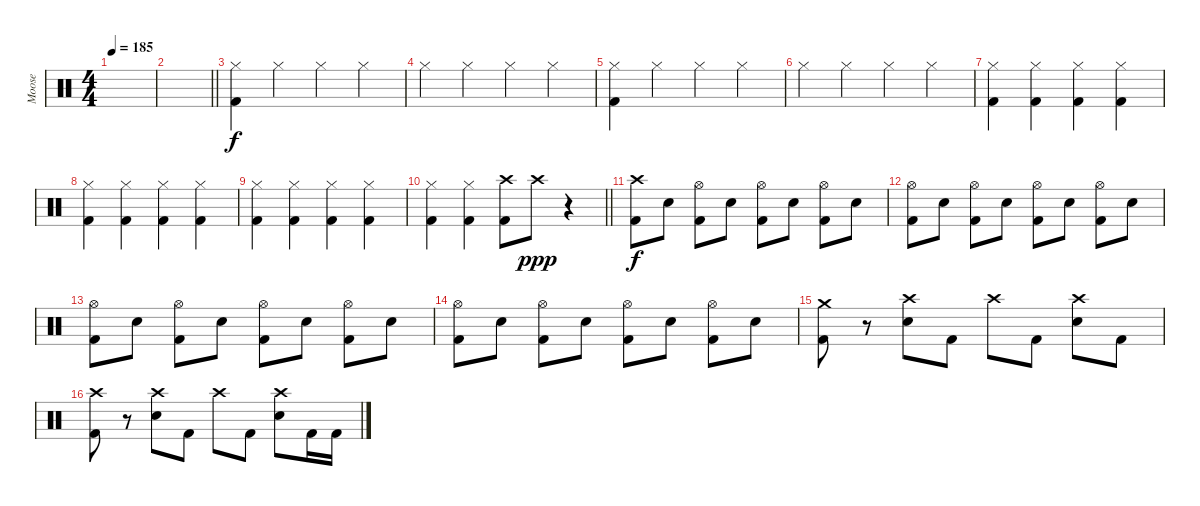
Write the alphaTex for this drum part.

\track ("Moose" "Moose") {instrument percussion}
\staff {score}
\articulation defaults
\ts (4 4)
\tempo 185
\clef neutral
\ks c
|
\barLineRight lightlight
|
("Hi-Hat (closed)" "Kick (hit) 2").4{dy f} "Hi-Hat (closed)".4 "Hi-Hat (closed)".4 "Hi-Hat (closed)".4 |
"Hi-Hat (closed)".4 "Hi-Hat (closed)".4 "Hi-Hat (closed)".4 "Hi-Hat (closed)".4 |
("Hi-Hat (closed)" "Kick (hit) 2").4 "Hi-Hat (closed)".4 "Hi-Hat (closed)".4 "Hi-Hat (closed)".4 |
"Hi-Hat (closed)".4 "Hi-Hat (closed)".4 "Hi-Hat (closed)".4 "Hi-Hat (closed)".4 |
("Hi-Hat (closed)" "Kick (hit) 2").4 ("Hi-Hat (closed)" "Kick (hit) 2").4 ("Hi-Hat (closed)" "Kick (hit) 2").4 ("Hi-Hat (closed)" "Kick (hit) 2").4 |
("Hi-Hat (closed)" "Kick (hit) 2").4 ("Hi-Hat (closed)" "Kick (hit) 2").4 ("Hi-Hat (closed)" "Kick (hit) 2").4 ("Hi-Hat (closed)" "Kick (hit) 2").4 |
("Hi-Hat (closed)" "Kick (hit) 2").4 ("Hi-Hat (closed)" "Kick (hit) 2").4 ("Hi-Hat (closed)" "Kick (hit) 2").4 ("Hi-Hat (closed)" "Kick (hit) 2").4 |
\barLineRight lightlight
("Hi-Hat (closed)" "Kick (hit) 2").4 ("Hi-Hat (closed)" "Kick (hit) 2").4 ("Crash high (hit)" "Kick (hit) 2").8 "Crash high (hit)".8{dy ppp} r.4 |
("Crash high (hit)" "Kick (hit) 2").8{dy f} "Electric Snare (hit)".8 ("Hi-Hat (open)" "Kick (hit) 2").8 "Electric Snare (hit)".8 ("Hi-Hat (open)" "Kick (hit) 2").8 "Electric Snare (hit)".8 ("Hi-Hat (open)" "Kick (hit) 2").8 "Electric Snare (hit)".8 |
("Hi-Hat (open)" "Kick (hit) 2").8 "Electric Snare (hit)".8 ("Hi-Hat (open)" "Kick (hit) 2").8 "Electric Snare (hit)".8 ("Hi-Hat (open)" "Kick (hit) 2").8 "Electric Snare (hit)".8 ("Hi-Hat (open)" "Kick (hit) 2").8 "Electric Snare (hit)".8 |
("Hi-Hat (open)" "Kick (hit) 2").8 "Electric Snare (hit)".8 ("Hi-Hat (open)" "Kick (hit) 2").8 "Electric Snare (hit)".8 ("Hi-Hat (open)" "Kick (hit) 2").8 "Electric Snare (hit)".8 ("Hi-Hat (open)" "Kick (hit) 2").8 "Electric Snare (hit)".8 |
("Hi-Hat (open)" "Kick (hit) 2").8 "Electric Snare (hit)".8 ("Hi-Hat (open)" "Kick (hit) 2").8 "Electric Snare (hit)".8 ("Hi-Hat (open)" "Kick (hit) 2").8 "Electric Snare (hit)".8 ("Hi-Hat (open)" "Kick (hit) 2").8 "Electric Snare (hit)".8 |
("Crash medium (hit)" "Kick (hit) 2").8 r.8 ("Crash high (hit)" "Electric Snare (hit)").8 "Kick (hit) 2".8 "Crash high (hit)".8 "Kick (hit) 2".8 ("Crash high (hit)" "Electric Snare (hit)").8 "Kick (hit) 2".8 |
("Crash high (hit)" "Kick (hit) 2").8 r.8 ("Crash high (hit)" "Electric Snare (hit)").8 "Kick (hit) 2".8 "Crash high (hit)".8 "Kick (hit) 2".8 ("Crash high (hit)" "Electric Snare (hit)").8 "Kick (hit) 2".16 "Kick (hit) 2".16
